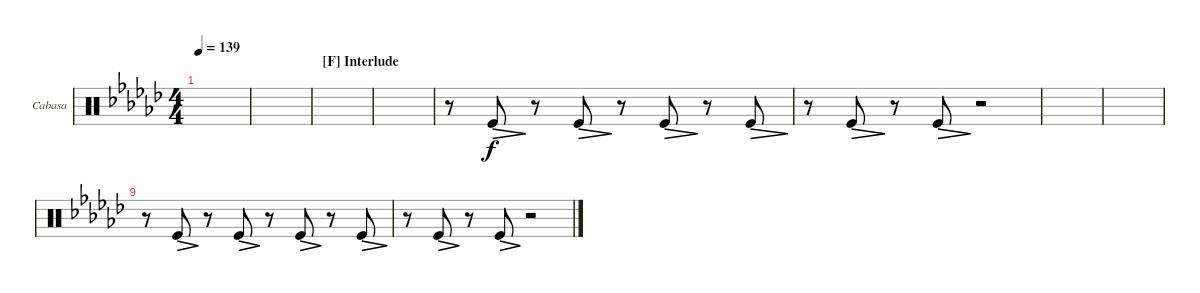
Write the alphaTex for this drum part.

\bracketExtendMode groupsimilarinstruments
\firstSystemTrackNameOrientation horizontal
\otherSystemsTrackNameOrientation horizontal
\defaultBarNumberDisplay FirstOfSystem
\track ("Cabasa" "Cabasa") {instrument percussion}
\staff {score}
\articulation defaults
\ts (4 4)
\tempo 139
\clef neutral
\ks gb
|
|
\section ("F" "Interlude")
|
|
r.8 "Kick (hit)".8{dec} r.8 "Kick (hit)".8{dec} r.8 "Kick (hit)".8{dec} r.8 "Kick (hit)".8{dec} |
r.8 "Kick (hit)".8{dec} r.8 "Kick (hit)".8{dec} r.2 |
|
|
r.8 "Kick (hit)".8{dec} r.8 "Kick (hit)".8{dec} r.8 "Kick (hit)".8{dec} r.8 "Kick (hit)".8{dec} |
r.8 "Kick (hit)".8{dec} r.8 "Kick (hit)".8{dec} r.2
